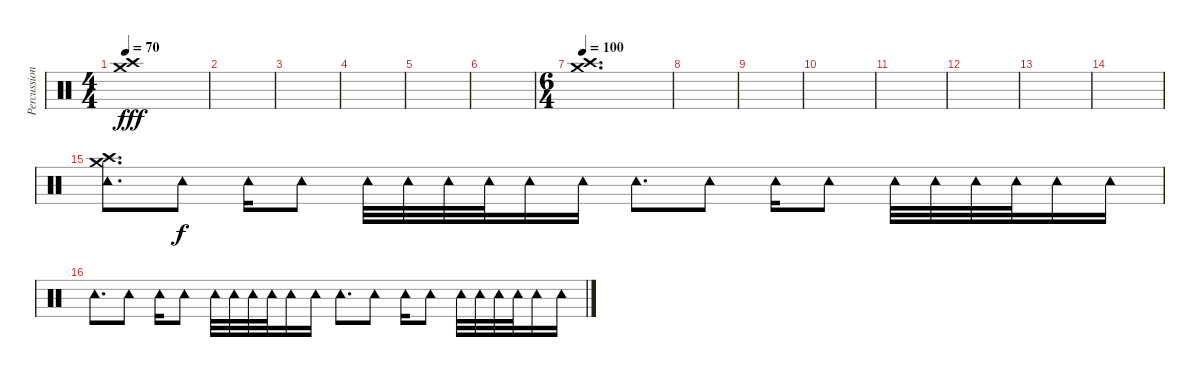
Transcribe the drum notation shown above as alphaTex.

\track ("Percussion" "Percussion") {instrument percussion}
\staff {score}
\articulation defaults
\ts (4 4)
\tempo 70
\clef neutral
\ks c
("Crash high (hit)" "Crash medium (hit)").1{dy fff} |
|
|
|
|
|
\ts (6 4)
\tempo 100
("Crash high (hit)" "Crash medium (hit)").1{d} |
|
|
|
|
|
|
|
("Tambourine (hit)" "Crash high (hit)" "Crash medium (hit)").8{d} "Tambourine (hit)".8{dy f} "Tambourine (hit)".16 "Tambourine (hit)".8 "Tambourine (hit)".32 "Tambourine (hit)".32 "Tambourine (hit)".32 "Tambourine (hit)".32 "Tambourine (hit)".16 "Tambourine (hit)".16 "Tambourine (hit)".8{d} "Tambourine (hit)".8 "Tambourine (hit)".16 "Tambourine (hit)".8 "Tambourine (hit)".32 "Tambourine (hit)".32 "Tambourine (hit)".32 "Tambourine (hit)".32 "Tambourine (hit)".16 "Tambourine (hit)".16 |
"Tambourine (hit)".8{d} "Tambourine (hit)".8 "Tambourine (hit)".16 "Tambourine (hit)".8 "Tambourine (hit)".32 "Tambourine (hit)".32 "Tambourine (hit)".32 "Tambourine (hit)".32 "Tambourine (hit)".16 "Tambourine (hit)".16 "Tambourine (hit)".8{d} "Tambourine (hit)".8 "Tambourine (hit)".16 "Tambourine (hit)".8 "Tambourine (hit)".32 "Tambourine (hit)".32 "Tambourine (hit)".32 "Tambourine (hit)".32 "Tambourine (hit)".16 "Tambourine (hit)".16
